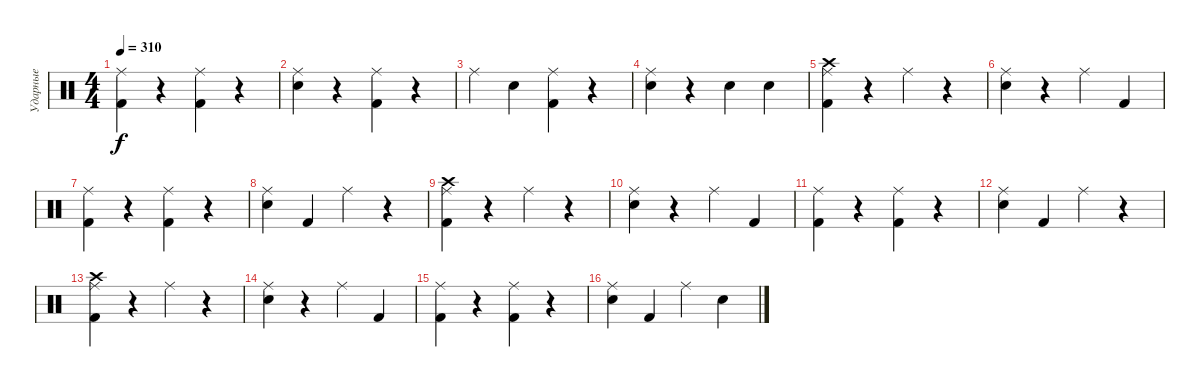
\track ("Ударные" "Ударные") {instrument percussion}
\staff {score}
\articulation defaults
\ts (4 4)
\tempo 310
\clef neutral
\ks c
("Ride (middle)" "Kick (hit) 2").4{dy f} r.4 ("Ride (middle)" "Kick (hit) 2").4 r.4 |
("Ride (middle)" "Electric Snare (hit)").4 r.4 ("Ride (middle)" "Kick (hit) 2").4 r.4 |
"Ride (middle)".4 "Electric Snare (hit)".4 ("Ride (middle)" "Kick (hit) 2").4 r.4 |
("Ride (middle)" "Electric Snare (hit)").4 r.4 "Electric Snare (hit)".4 "Electric Snare (hit)".4 |
("Crash high (hit)" "Ride (middle)" "Kick (hit) 2").4 r.4 "Ride (middle)".4 r.4 |
("Ride (middle)" "Electric Snare (hit)").4 r.4 "Ride (middle)".4 "Kick (hit) 2".4 |
("Ride (middle)" "Kick (hit) 2").4 r.4 ("Ride (middle)" "Kick (hit) 2").4 r.4 |
("Ride (middle)" "Electric Snare (hit)").4 "Kick (hit) 2".4 "Ride (middle)".4 r.4 |
("Crash high (hit)" "Ride (middle)" "Kick (hit) 2").4 r.4 "Ride (middle)".4 r.4 |
("Ride (middle)" "Electric Snare (hit)").4 r.4 "Ride (middle)".4 "Kick (hit) 2".4 |
("Ride (middle)" "Kick (hit) 2").4 r.4 ("Ride (middle)" "Kick (hit) 2").4 r.4 |
("Ride (middle)" "Electric Snare (hit)").4 "Kick (hit) 2".4 "Ride (middle)".4 r.4 |
("Crash high (hit)" "Ride (middle)" "Kick (hit) 2").4 r.4 "Ride (middle)".4 r.4 |
("Ride (middle)" "Electric Snare (hit)").4 r.4 "Ride (middle)".4 "Kick (hit) 2".4 |
("Ride (middle)" "Kick (hit) 2").4 r.4 ("Ride (middle)" "Kick (hit) 2").4 r.4 |
("Ride (middle)" "Electric Snare (hit)").4 "Kick (hit) 2".4 "Ride (middle)".4 "Electric Snare (hit)".4
